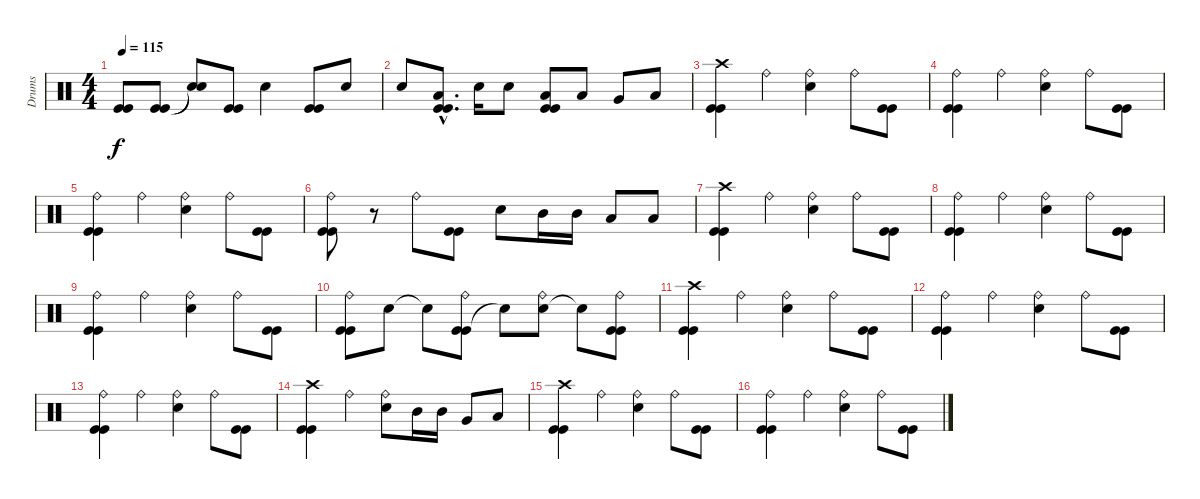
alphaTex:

\track ("Drums" "Drums") {instrument percussion}
\staff {score}
\articulation defaults
\ts (4 4)
\tempo 115
\clef neutral
\ks c
("Kick (hit)" "Kick (hit)").8{dy f} ("Kick (hit)" "Kick (hit)").8 ("Snare (hit)"{t} "Snare (hit)"{t}).8 ("Kick (hit)" "Kick (hit)").8 "Snare (hit) 2".4 ("Kick (hit)" "Kick (hit)").8 "Snare (hit) 2".8 |
"Snare (hit) 2".8 ("Kick (hit)"{hac} "Kick (hit)"{hac} "Low Floor Tom (hit)"{hac}).8{d} "Snare (hit) 2".16 "Snare (hit) 2".8 ("Kick (hit)" "Kick (hit)" "Low Tom (hit)").8 "Low Tom (hit)".8 "Very Low Tom (hit)".8 "Low Floor Tom (hit)".8 |
("Kick (hit)" "Kick (hit)" "Crash high (hit)").4 "Ride (bell)".4 ("Snare (hit) 2" "Ride (bell)").4 "Ride (bell)".8 ("Kick (hit)" "Kick (hit)").8 |
("Kick (hit)" "Kick (hit)" "Ride (bell)").4 "Ride (bell)".4 ("Snare (hit) 2" "Ride (bell)").4 "Ride (bell)".8 ("Kick (hit)" "Kick (hit)").8 |
("Kick (hit)" "Kick (hit)" "Ride (bell)").4 "Ride (bell)".4 ("Snare (hit) 2" "Ride (bell)").4 "Ride (bell)".8 ("Kick (hit)" "Kick (hit)").8 |
("Kick (hit)" "Kick (hit)" "Ride (bell)").8 r.8 "Ride (bell)".8 ("Kick (hit)" "Kick (hit)").8 "Snare (hit) 2".8 "Mid Tom (hit)".16 "Mid Tom (hit)".16 "Low Tom (hit)".8 "Low Floor Tom (hit)".8 |
("Kick (hit)" "Kick (hit)" "Crash high (hit)").4 "Ride (bell)".4 ("Snare (hit) 2" "Ride (bell)").4 "Ride (bell)".8 ("Kick (hit)" "Kick (hit)").8 |
("Kick (hit)" "Kick (hit)" "Ride (bell)").4 "Ride (bell)".4 ("Snare (hit) 2" "Ride (bell)").4 "Ride (bell)".8 ("Kick (hit)" "Kick (hit)").8 |
("Kick (hit)" "Kick (hit)" "Ride (bell)").4 "Ride (bell)".4 ("Snare (hit) 2" "Ride (bell)").4 "Ride (bell)".8 ("Kick (hit)" "Kick (hit)").8 |
("Kick (hit)" "Kick (hit)" "Ride (bell)").8 "Snare (hit) 2".8 "Snare (hit)"{t}.8 ("Kick (hit)" "Kick (hit)" "Ride (bell)").8 "Snare (hit)"{t}.8 ("Snare (hit) 2" "Ride (bell)").8 "Snare (hit)"{t}.8 ("Kick (hit)" "Kick (hit)" "Ride (bell)").8 |
("Kick (hit)" "Kick (hit)" "Crash high (hit)").4 "Ride (bell)".4 ("Snare (hit) 2" "Ride (bell)").4 "Ride (bell)".8 ("Kick (hit)" "Kick (hit)").8 |
("Kick (hit)" "Kick (hit)" "Ride (bell)").4 "Ride (bell)".4 ("Snare (hit) 2" "Ride (bell)").4 "Ride (bell)".8 ("Kick (hit)" "Kick (hit)").8 |
("Kick (hit)" "Kick (hit)" "Ride (bell)").4 "Ride (bell)".4 ("Snare (hit) 2" "Ride (bell)").4 "Ride (bell)".8 ("Kick (hit)" "Kick (hit)").8 |
("Kick (hit)" "Kick (hit)" "Crash high (hit)").4 "Ride (bell)".4 ("Snare (hit) 2" "Ride (bell)").8 "Mid Tom (hit)".16 "Mid Tom (hit)".16 "Very Low Tom (hit)".8 "Low Floor Tom (hit)".8 |
("Kick (hit)" "Kick (hit)" "Crash high (hit)").4 "Ride (bell)".4 ("Snare (hit) 2" "Ride (bell)").4 "Ride (bell)".8 ("Kick (hit)" "Kick (hit)").8 |
("Kick (hit)" "Kick (hit)" "Ride (bell)").4 "Ride (bell)".4 ("Snare (hit) 2" "Ride (bell)").4 "Ride (bell)".8 ("Kick (hit)" "Kick (hit)").8
